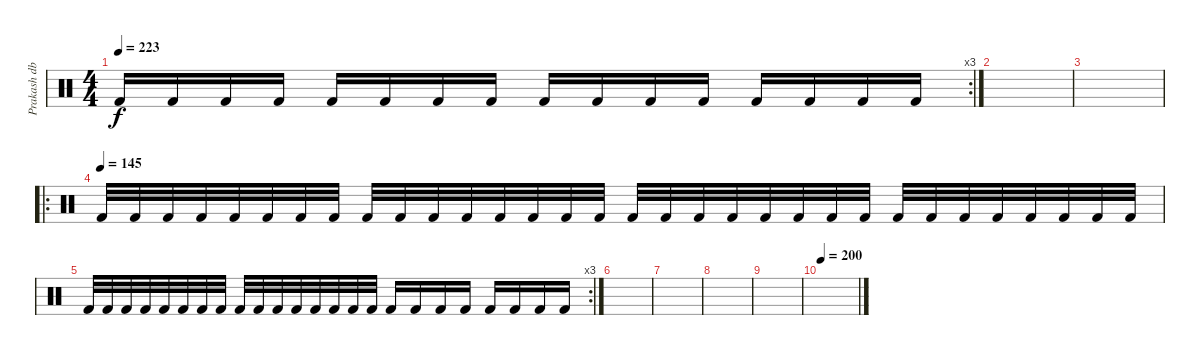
\track ("Prakash db" "Prakash db") {instrument percussion}
\staff {score}
\articulation defaults
\rc 3
\ts (4 4)
\tempo 223
\clef neutral
\ks c "Kick (hit) 2".16{dy f} "Kick (hit) 2".16 "Kick (hit) 2".16 "Kick (hit) 2".16 "Kick (hit) 2".16 "Kick (hit) 2".16 "Kick (hit) 2".16 "Kick (hit) 2".16 "Kick (hit) 2".16 "Kick (hit) 2".16 "Kick (hit) 2".16 "Kick (hit) 2".16 "Kick (hit) 2".16 "Kick (hit) 2".16 "Kick (hit) 2".16 "Kick (hit) 2".16
|
|
|
\ro
\tempo (145)
"Kick (hit) 2".32 "Kick (hit) 2".32 "Kick (hit) 2".32 "Kick (hit) 2".32 "Kick (hit) 2".32 "Kick (hit) 2".32 "Kick (hit) 2".32 "Kick (hit) 2".32 "Kick (hit) 2".32 "Kick (hit) 2".32 "Kick (hit) 2".32 "Kick (hit) 2".32 "Kick (hit) 2".32 "Kick (hit) 2".32 "Kick (hit) 2".32 "Kick (hit) 2".32 "Kick (hit) 2".32 "Kick (hit) 2".32 "Kick (hit) 2".32 "Kick (hit) 2".32 "Kick (hit) 2".32 "Kick (hit) 2".32 "Kick (hit) 2".32 "Kick (hit) 2".32 "Kick (hit) 2".32 "Kick (hit) 2".32 "Kick (hit) 2".32 "Kick (hit) 2".32 "Kick (hit) 2".32 "Kick (hit) 2".32 "Kick (hit) 2".32 "Kick (hit) 2".32 |
\rc 3 "Kick (hit) 2".32 "Kick (hit) 2".32 "Kick (hit) 2".32 "Kick (hit) 2".32 "Kick (hit) 2".32 "Kick (hit) 2".32 "Kick (hit) 2".32 "Kick (hit) 2".32 "Kick (hit) 2".32 "Kick (hit) 2".32 "Kick (hit) 2".32 "Kick (hit) 2".32 "Kick (hit) 2".32 "Kick (hit) 2".32 "Kick (hit) 2".32 "Kick (hit) 2".32 "Kick (hit) 2".16 "Kick (hit) 2".16 "Kick (hit) 2".16 "Kick (hit) 2".16 "Kick (hit) 2".16 "Kick (hit) 2".16 "Kick (hit) 2".16 "Kick (hit) 2".16
|
|
|
|
|
\tempo 200
